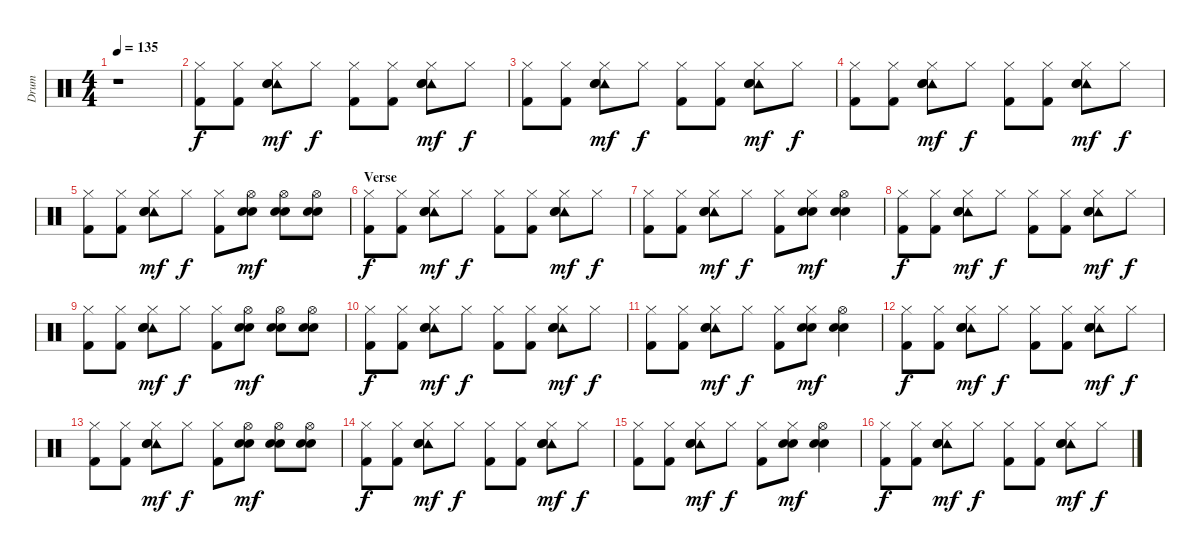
\track ("Drum" "Drum") {instrument percussion}
\staff {score}
\articulation defaults
\ts (4 4)
\tempo 135
\clef neutral
\ks c
r.1{dy f} |
("Hi-Hat (closed)" "Kick (hit) 2").8 ("Hi-Hat (closed)" "Kick (hit) 2").8 ("Hi-Hat (closed)" "Tambourine (hit)" "Electric Snare (hit)" "Hand Clap (hit)").8{dy mf} "Hi-Hat (closed)".8{dy f} ("Hi-Hat (closed)" "Kick (hit) 2").8 ("Hi-Hat (closed)" "Kick (hit) 2").8 ("Hi-Hat (closed)" "Tambourine (hit)" "Electric Snare (hit)" "Hand Clap (hit)").8{dy mf} "Hi-Hat (closed)".8{dy f} |
("Hi-Hat (closed)" "Kick (hit) 2").8 ("Hi-Hat (closed)" "Kick (hit) 2").8 ("Hi-Hat (closed)" "Tambourine (hit)" "Electric Snare (hit)" "Hand Clap (hit)").8{dy mf} "Hi-Hat (closed)".8{dy f} ("Hi-Hat (closed)" "Kick (hit) 2").8 ("Hi-Hat (closed)" "Kick (hit) 2").8 ("Hi-Hat (closed)" "Tambourine (hit)" "Electric Snare (hit)" "Hand Clap (hit)").8{dy mf} "Hi-Hat (closed)".8{dy f} |
("Hi-Hat (closed)" "Kick (hit) 2").8 ("Hi-Hat (closed)" "Kick (hit) 2").8 ("Hi-Hat (closed)" "Tambourine (hit)" "Electric Snare (hit)" "Hand Clap (hit)").8{dy mf} "Hi-Hat (closed)".8{dy f} ("Hi-Hat (closed)" "Kick (hit) 2").8 ("Hi-Hat (closed)" "Kick (hit) 2").8 ("Hi-Hat (closed)" "Tambourine (hit)" "Electric Snare (hit)" "Hand Clap (hit)").8{dy mf} "Hi-Hat (closed)".8{dy f} |
("Hi-Hat (closed)" "Kick (hit) 2").8 ("Hi-Hat (closed)" "Kick (hit) 2").8 ("Hi-Hat (closed)" "Tambourine (hit)" "Electric Snare (hit)" "Hand Clap (hit)").8{dy mf} "Hi-Hat (closed)".8{dy f} ("Hi-Hat (closed)" "Kick (hit) 2").8 ("Hi-Hat (open)" "Electric Snare (hit)" "Hand Clap (hit)").8{dy mf} ("Hi-Hat (open)" "Electric Snare (hit)" "Hand Clap (hit)").8 ("Hi-Hat (open)" "Electric Snare (hit)" "Hand Clap (hit)").8 |
\section ("" "Verse")
("Hi-Hat (closed)" "Kick (hit) 2").8{dy f} ("Hi-Hat (closed)" "Kick (hit) 2").8 ("Hi-Hat (closed)" "Tambourine (hit)" "Electric Snare (hit)" "Hand Clap (hit)").8{dy mf} "Hi-Hat (closed)".8{dy f} ("Hi-Hat (closed)" "Kick (hit) 2").8 ("Hi-Hat (closed)" "Kick (hit) 2").8 ("Hi-Hat (closed)" "Tambourine (hit)" "Electric Snare (hit)" "Hand Clap (hit)").8{dy mf} "Hi-Hat (closed)".8{dy f} |
("Hi-Hat (closed)" "Kick (hit) 2").8 ("Hi-Hat (closed)" "Kick (hit) 2").8 ("Hi-Hat (closed)" "Tambourine (hit)" "Electric Snare (hit)" "Hand Clap (hit)").8{dy mf} "Hi-Hat (closed)".8{dy f} ("Hi-Hat (closed)" "Kick (hit) 2").8 ("Hi-Hat (closed)" "Electric Snare (hit)" "Hand Clap (hit)").8{dy mf} ("Hi-Hat (open)" "Electric Snare (hit)" "Hand Clap (hit)").4 |
("Hi-Hat (closed)" "Kick (hit) 2").8{dy f} ("Hi-Hat (closed)" "Kick (hit) 2").8 ("Hi-Hat (closed)" "Tambourine (hit)" "Electric Snare (hit)" "Hand Clap (hit)").8{dy mf} "Hi-Hat (closed)".8{dy f} ("Hi-Hat (closed)" "Kick (hit) 2").8 ("Hi-Hat (closed)" "Kick (hit) 2").8 ("Hi-Hat (closed)" "Tambourine (hit)" "Electric Snare (hit)" "Hand Clap (hit)").8{dy mf} "Hi-Hat (closed)".8{dy f} |
("Hi-Hat (closed)" "Kick (hit) 2").8 ("Hi-Hat (closed)" "Kick (hit) 2").8 ("Hi-Hat (closed)" "Tambourine (hit)" "Electric Snare (hit)" "Hand Clap (hit)").8{dy mf} "Hi-Hat (closed)".8{dy f} ("Hi-Hat (closed)" "Kick (hit) 2").8 ("Hi-Hat (open)" "Electric Snare (hit)" "Hand Clap (hit)").8{dy mf} ("Hi-Hat (open)" "Electric Snare (hit)" "Hand Clap (hit)").8 ("Hi-Hat (open)" "Electric Snare (hit)" "Hand Clap (hit)").8 |
("Hi-Hat (closed)" "Kick (hit) 2").8{dy f} ("Hi-Hat (closed)" "Kick (hit) 2").8 ("Hi-Hat (closed)" "Tambourine (hit)" "Electric Snare (hit)" "Hand Clap (hit)").8{dy mf} "Hi-Hat (closed)".8{dy f} ("Hi-Hat (closed)" "Kick (hit) 2").8 ("Hi-Hat (closed)" "Kick (hit) 2").8 ("Hi-Hat (closed)" "Tambourine (hit)" "Electric Snare (hit)" "Hand Clap (hit)").8{dy mf} "Hi-Hat (closed)".8{dy f} |
("Hi-Hat (closed)" "Kick (hit) 2").8 ("Hi-Hat (closed)" "Kick (hit) 2").8 ("Hi-Hat (closed)" "Tambourine (hit)" "Electric Snare (hit)" "Hand Clap (hit)").8{dy mf} "Hi-Hat (closed)".8{dy f} ("Hi-Hat (closed)" "Kick (hit) 2").8 ("Hi-Hat (closed)" "Electric Snare (hit)" "Hand Clap (hit)").8{dy mf} ("Hi-Hat (open)" "Electric Snare (hit)" "Hand Clap (hit)").4 |
("Hi-Hat (closed)" "Kick (hit) 2").8{dy f} ("Hi-Hat (closed)" "Kick (hit) 2").8 ("Hi-Hat (closed)" "Tambourine (hit)" "Electric Snare (hit)" "Hand Clap (hit)").8{dy mf} "Hi-Hat (closed)".8{dy f} ("Hi-Hat (closed)" "Kick (hit) 2").8 ("Hi-Hat (closed)" "Kick (hit) 2").8 ("Hi-Hat (closed)" "Tambourine (hit)" "Electric Snare (hit)" "Hand Clap (hit)").8{dy mf} "Hi-Hat (closed)".8{dy f} |
("Hi-Hat (closed)" "Kick (hit) 2").8 ("Hi-Hat (closed)" "Kick (hit) 2").8 ("Hi-Hat (closed)" "Tambourine (hit)" "Electric Snare (hit)" "Hand Clap (hit)").8{dy mf} "Hi-Hat (closed)".8{dy f} ("Hi-Hat (closed)" "Kick (hit) 2").8 ("Hi-Hat (open)" "Electric Snare (hit)" "Hand Clap (hit)").8{dy mf} ("Hi-Hat (open)" "Electric Snare (hit)" "Hand Clap (hit)").8 ("Hi-Hat (open)" "Electric Snare (hit)" "Hand Clap (hit)").8 |
("Hi-Hat (closed)" "Kick (hit) 2").8{dy f} ("Hi-Hat (closed)" "Kick (hit) 2").8 ("Hi-Hat (closed)" "Tambourine (hit)" "Electric Snare (hit)" "Hand Clap (hit)").8{dy mf} "Hi-Hat (closed)".8{dy f} ("Hi-Hat (closed)" "Kick (hit) 2").8 ("Hi-Hat (closed)" "Kick (hit) 2").8 ("Hi-Hat (closed)" "Tambourine (hit)" "Electric Snare (hit)" "Hand Clap (hit)").8{dy mf} "Hi-Hat (closed)".8{dy f} |
("Hi-Hat (closed)" "Kick (hit) 2").8 ("Hi-Hat (closed)" "Kick (hit) 2").8 ("Hi-Hat (closed)" "Tambourine (hit)" "Electric Snare (hit)" "Hand Clap (hit)").8{dy mf} "Hi-Hat (closed)".8{dy f} ("Hi-Hat (closed)" "Kick (hit) 2").8 ("Hi-Hat (closed)" "Electric Snare (hit)" "Hand Clap (hit)").8{dy mf} ("Hi-Hat (open)" "Electric Snare (hit)" "Hand Clap (hit)").4 |
("Hi-Hat (closed)" "Kick (hit) 2").8{dy f} ("Hi-Hat (closed)" "Kick (hit) 2").8 ("Hi-Hat (closed)" "Tambourine (hit)" "Electric Snare (hit)" "Hand Clap (hit)").8{dy mf} "Hi-Hat (closed)".8{dy f} ("Hi-Hat (closed)" "Kick (hit) 2").8 ("Hi-Hat (closed)" "Kick (hit) 2").8 ("Hi-Hat (closed)" "Tambourine (hit)" "Electric Snare (hit)" "Hand Clap (hit)").8{dy mf} "Hi-Hat (closed)".8{dy f}
